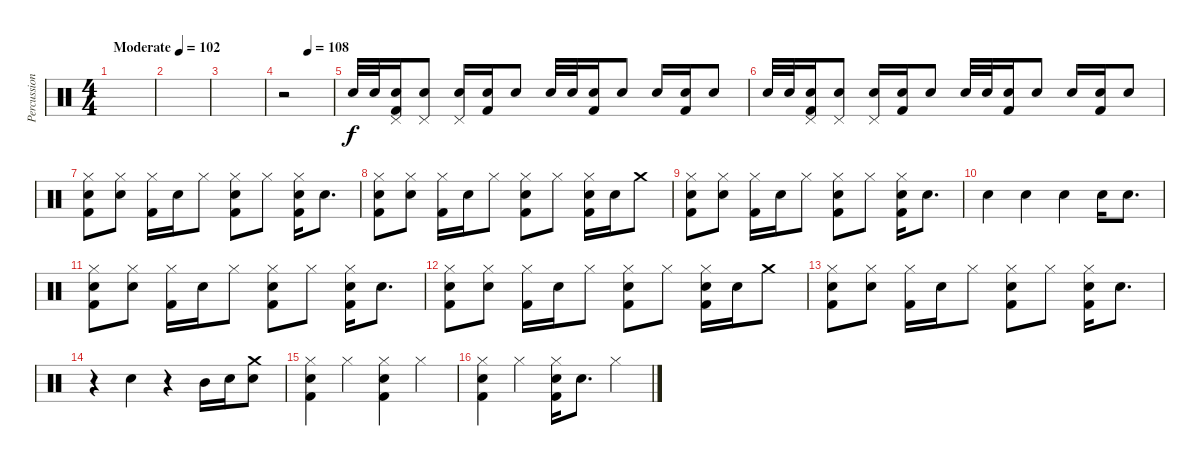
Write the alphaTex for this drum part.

\track ("Percussion" "Percussion") {instrument percussion}
\staff {score}
\articulation defaults
\ts (4 4)
\tempo (102 "Moderate")
\tempo 125
\tempo (102 "Moderate")
\clef neutral
\ks c
|
|
|
\tempo (108 0.5)
r.2 |
"Snare (hit) 2".32 "Snare (hit) 2".32 ("Snare (hit) 2" "Kick (hit) 2" "Pedal Hi-Hat (hit)").16 ("Snare (hit) 2" "Pedal Hi-Hat (hit)").8 ("Snare (hit) 2" "Pedal Hi-Hat (hit)").16 ("Snare (hit) 2" "Kick (hit) 2").16 "Snare (hit) 2".8 "Snare (hit) 2".32 "Snare (hit) 2".32 ("Snare (hit) 2" "Kick (hit) 2").16 "Snare (hit) 2".8 "Snare (hit) 2".16 ("Snare (hit) 2" "Kick (hit) 2").16 "Snare (hit) 2".8 |
"Snare (hit) 2".32 "Snare (hit) 2".32 ("Snare (hit) 2" "Kick (hit) 2" "Pedal Hi-Hat (hit)").16 ("Snare (hit) 2" "Pedal Hi-Hat (hit)").8 ("Snare (hit) 2" "Pedal Hi-Hat (hit)").16 ("Snare (hit) 2" "Kick (hit) 2").16 "Snare (hit) 2".8 "Snare (hit) 2".32 "Snare (hit) 2".32 ("Snare (hit) 2" "Kick (hit) 2").16 "Snare (hit) 2".8 "Snare (hit) 2".16 ("Snare (hit) 2" "Kick (hit) 2").16 "Snare (hit) 2".8 |
("Hi-Hat (closed)" "Snare (hit) 2" "Kick (hit) 2").8 ("Hi-Hat (closed)" "Snare (hit) 2").8 ("Hi-Hat (closed)" "Kick (hit) 2").16 "Snare (hit) 2".16 "Hi-Hat (closed)".8 ("Hi-Hat (closed)" "Snare (hit) 2" "Kick (hit) 2").8 "Hi-Hat (closed)".8 ("Hi-Hat (closed)" "Snare (hit) 2" "Kick (hit) 2").16 "Snare (hit) 2".8{d} |
("Hi-Hat (closed)" "Snare (hit) 2" "Kick (hit) 2").8 ("Hi-Hat (closed)" "Snare (hit) 2").8 ("Hi-Hat (closed)" "Kick (hit) 2").16 "Snare (hit) 2".16 "Hi-Hat (closed)".8 ("Hi-Hat (closed)" "Snare (hit) 2" "Kick (hit) 2").8 "Hi-Hat (closed)".8 ("Hi-Hat (closed)" "Snare (hit) 2" "Kick (hit) 2").16 "Snare (hit) 2".16 "Crash medium (hit)".8 |
("Hi-Hat (closed)" "Snare (hit) 2" "Kick (hit) 2").8 ("Hi-Hat (closed)" "Snare (hit) 2").8 ("Hi-Hat (closed)" "Kick (hit) 2").16 "Snare (hit) 2".16 "Hi-Hat (closed)".8 ("Hi-Hat (closed)" "Snare (hit) 2" "Kick (hit) 2").8 "Hi-Hat (closed)".8 ("Hi-Hat (closed)" "Snare (hit) 2" "Kick (hit) 2").16 "Snare (hit) 2".8{d} |
"Snare (hit) 2".4 "Snare (hit) 2".4 "Snare (hit) 2".4 "Snare (hit) 2".16 "Snare (hit) 2".8{d} |
("Hi-Hat (closed)" "Snare (hit) 2" "Kick (hit) 2").8 ("Hi-Hat (closed)" "Snare (hit) 2").8 ("Hi-Hat (closed)" "Kick (hit) 2").16 "Snare (hit) 2".16 "Hi-Hat (closed)".8 ("Hi-Hat (closed)" "Snare (hit) 2" "Kick (hit) 2").8 "Hi-Hat (closed)".8 ("Hi-Hat (closed)" "Snare (hit) 2" "Kick (hit) 2").16 "Snare (hit) 2".8{d} |
("Hi-Hat (closed)" "Snare (hit) 2" "Kick (hit) 2").8 ("Hi-Hat (closed)" "Snare (hit) 2").8 ("Hi-Hat (closed)" "Kick (hit) 2").16 "Snare (hit) 2".16 "Hi-Hat (closed)".8 ("Hi-Hat (closed)" "Snare (hit) 2" "Kick (hit) 2").8 "Hi-Hat (closed)".8 ("Hi-Hat (closed)" "Snare (hit) 2" "Kick (hit) 2").16 "Snare (hit) 2".16 "Crash medium (hit)".8 |
("Hi-Hat (closed)" "Snare (hit) 2" "Kick (hit) 2").8 ("Hi-Hat (closed)" "Snare (hit) 2").8 ("Hi-Hat (closed)" "Kick (hit) 2").16 "Snare (hit) 2".16 "Hi-Hat (closed)".8 ("Hi-Hat (closed)" "Snare (hit) 2" "Kick (hit) 2").8 "Hi-Hat (closed)".8 ("Hi-Hat (closed)" "Snare (hit) 2" "Kick (hit) 2").16 "Snare (hit) 2".8{d} |
r.4 "Snare (hit) 2".4 r.4 "Mid Tom (hit)".16 "Snare (hit) 2".16 ("Snare (hit) 2" "Crash medium (hit)").8 |
("Hi-Hat (closed)" "Snare (hit) 2" "Kick (hit) 2").4 "Hi-Hat (closed)".4 ("Hi-Hat (closed)" "Snare (hit) 2" "Kick (hit) 2").4 "Hi-Hat (closed)".4 |
("Hi-Hat (closed)" "Snare (hit) 2" "Kick (hit) 2").4 "Hi-Hat (closed)".4 ("Hi-Hat (closed)" "Snare (hit) 2" "Kick (hit) 2").16 "Snare (hit) 2".8{d} "Hi-Hat (closed)".4
